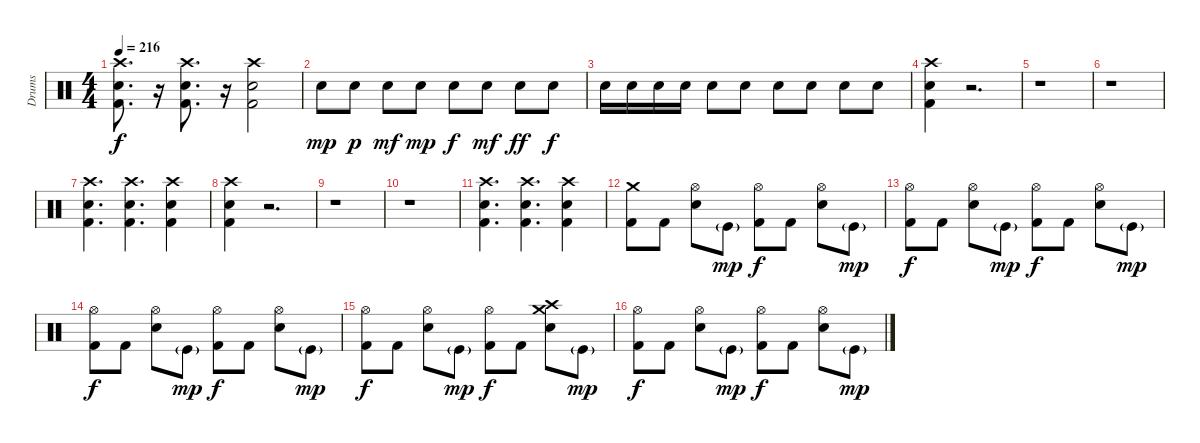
\track ("Drums" "Drums") {instrument percussion}
\staff {score}
\articulation defaults
\ts (4 4)
\tempo 216
\clef neutral
\ks c
("Crash high (hit)" "Snare (hit) 2" "Kick (hit) 2").8{d dy f} r.16 ("Crash high (hit)" "Snare (hit) 2" "Kick (hit) 2").8{d} r.16 ("Crash high (hit)" "Snare (hit) 2" "Kick (hit) 2").2 |
"Electric Snare (hit)".8{dy mp} "Electric Snare (hit)".8{dy p} "Electric Snare (hit)".8{dy mf} "Electric Snare (hit)".8{dy mp} "Electric Snare (hit)".8{dy f} "Electric Snare (hit)".8{dy mf} "Electric Snare (hit)".8{dy ff} "Electric Snare (hit)".8{dy f} |
"Electric Snare (hit)".16 "Electric Snare (hit)".16 "Electric Snare (hit)".16 "Electric Snare (hit)".16 "Electric Snare (hit)".8 "Electric Snare (hit)".8 "Electric Snare (hit)".8 "Electric Snare (hit)".8 "Electric Snare (hit)".8 "Electric Snare (hit)".8 |
("Crash high (hit)" "Snare (hit) 2" "Kick (hit) 2").4 r.2{d} |
r.1 |
r.1 |
("Crash high (hit)" "Snare (hit) 2" "Kick (hit) 2").4{d} ("Crash high (hit)" "Snare (hit) 2" "Kick (hit) 2").4{d} ("Crash high (hit)" "Snare (hit) 2" "Kick (hit) 2").4 |
("Crash high (hit)" "Snare (hit) 2" "Kick (hit) 2").4 r.2{d} |
r.1 |
r.1 |
("Crash high (hit)" "Snare (hit) 2" "Kick (hit) 2").4{d} ("Crash high (hit)" "Snare (hit) 2" "Kick (hit) 2").4{d} ("Crash high (hit)" "Snare (hit) 2" "Kick (hit) 2").4 |
("Crash medium (hit)" "Kick (hit) 2").8 "Kick (hit) 2".8 ("Hi-Hat (open)" "Snare (hit) 2").8 "Kick (hit)"{g}.8{dy mp} ("Hi-Hat (open)" "Kick (hit) 2").8{dy f} "Kick (hit) 2".8 ("Hi-Hat (open)" "Snare (hit) 2").8 "Kick (hit)"{g}.8{dy mp} |
("Hi-Hat (open)" "Kick (hit) 2").8{dy f} "Kick (hit) 2".8 ("Hi-Hat (open)" "Snare (hit) 2").8 "Kick (hit)"{g}.8{dy mp} ("Hi-Hat (open)" "Kick (hit) 2").8{dy f} "Kick (hit) 2".8 ("Hi-Hat (open)" "Snare (hit) 2").8 "Kick (hit)"{g}.8{dy mp} |
("Hi-Hat (open)" "Kick (hit) 2").8{dy f} "Kick (hit) 2".8 ("Hi-Hat (open)" "Snare (hit) 2").8 "Kick (hit)"{g}.8{dy mp} ("Hi-Hat (open)" "Kick (hit) 2").8{dy f} "Kick (hit) 2".8 ("Hi-Hat (open)" "Snare (hit) 2").8 "Kick (hit)"{g}.8{dy mp} |
("Hi-Hat (open)" "Kick (hit) 2").8{dy f} "Kick (hit) 2".8 ("Hi-Hat (open)" "Snare (hit) 2").8 "Kick (hit)"{g}.8{dy mp} ("Hi-Hat (open)" "Kick (hit) 2").8{dy f} "Kick (hit) 2".8 ("Crash medium (hit)" "Crash high (hit)" "Snare (hit) 2").8 "Kick (hit)"{g}.8{dy mp} |
("Hi-Hat (open)" "Kick (hit) 2").8{dy f} "Kick (hit) 2".8 ("Hi-Hat (open)" "Snare (hit) 2").8 "Kick (hit)"{g}.8{dy mp} ("Hi-Hat (open)" "Kick (hit) 2").8{dy f} "Kick (hit) 2".8 ("Hi-Hat (open)" "Snare (hit) 2").8 "Kick (hit)"{g}.8{dy mp}
